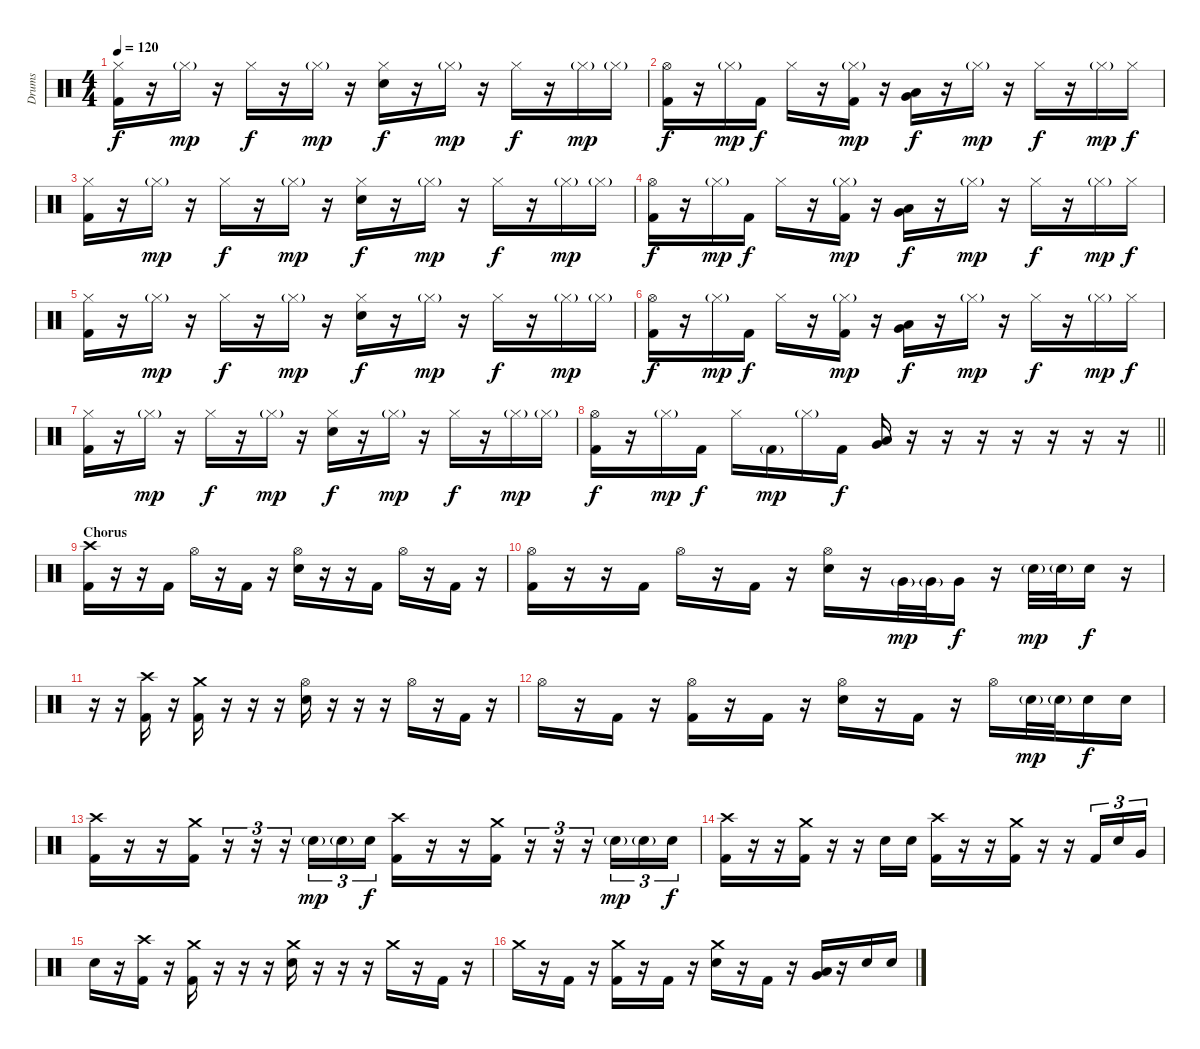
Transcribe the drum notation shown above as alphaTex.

\track ("Drums" "Drums") {instrument percussion}
\staff {score}
\articulation defaults
\ts (4 4)
\tempo 120
\clef neutral
\ks c
("Hi-Hat (closed)" "Kick (hit) 2").16{dy f} r.16 "Hi-Hat (closed)"{g}.16{dy mp} r.16 "Hi-Hat (closed)".16{dy f} r.16 "Hi-Hat (closed)"{g}.16{dy mp} r.16 ("Hi-Hat (closed)" "Electric Snare (hit)").16{dy f} r.16 "Hi-Hat (closed)"{g}.16{dy mp} r.16 "Hi-Hat (closed)".16{dy f} r.16 "Hi-Hat (closed)"{g}.16{dy mp} "Hi-Hat (closed)"{g}.16 |
("Hi-Hat (open)" "Kick (hit) 2").16{dy f} r.16 "Hi-Hat (closed)"{g}.16{dy mp} "Kick (hit) 2".16{dy f} "Hi-Hat (closed)".16 r.16 ("Hi-Hat (closed)"{g} "Kick (hit) 2").16{dy mp} r.16 ("Low Floor Tom (hit)" "Very Low Tom (hit)").16{dy f} r.16 "Hi-Hat (closed)"{g}.16{dy mp} r.16 "Hi-Hat (closed)".16{dy f} r.16 "Hi-Hat (closed)"{g}.16{dy mp} "Hi-Hat (closed)".16{dy f} |
("Hi-Hat (closed)" "Kick (hit) 2").16 r.16 "Hi-Hat (closed)"{g}.16{dy mp} r.16 "Hi-Hat (closed)".16{dy f} r.16 "Hi-Hat (closed)"{g}.16{dy mp} r.16 ("Hi-Hat (closed)" "Electric Snare (hit)").16{dy f} r.16 "Hi-Hat (closed)"{g}.16{dy mp} r.16 "Hi-Hat (closed)".16{dy f} r.16 "Hi-Hat (closed)"{g}.16{dy mp} "Hi-Hat (closed)"{g}.16 |
("Hi-Hat (open)" "Kick (hit) 2").16{dy f} r.16 "Hi-Hat (closed)"{g}.16{dy mp} "Kick (hit) 2".16{dy f} "Hi-Hat (closed)".16 r.16 ("Hi-Hat (closed)"{g} "Kick (hit) 2").16{dy mp} r.16 ("Low Floor Tom (hit)" "Very Low Tom (hit)").16{dy f} r.16 "Hi-Hat (closed)"{g}.16{dy mp} r.16 "Hi-Hat (closed)".16{dy f} r.16 "Hi-Hat (closed)"{g}.16{dy mp} "Hi-Hat (closed)".16{dy f} |
("Hi-Hat (closed)" "Kick (hit) 2").16 r.16 "Hi-Hat (closed)"{g}.16{dy mp} r.16 "Hi-Hat (closed)".16{dy f} r.16 "Hi-Hat (closed)"{g}.16{dy mp} r.16 ("Hi-Hat (closed)" "Electric Snare (hit)").16{dy f} r.16 "Hi-Hat (closed)"{g}.16{dy mp} r.16 "Hi-Hat (closed)".16{dy f} r.16 "Hi-Hat (closed)"{g}.16{dy mp} "Hi-Hat (closed)"{g}.16 |
("Hi-Hat (open)" "Kick (hit) 2").16{dy f} r.16 "Hi-Hat (closed)"{g}.16{dy mp} "Kick (hit) 2".16{dy f} "Hi-Hat (closed)".16 r.16 ("Hi-Hat (closed)"{g} "Kick (hit) 2").16{dy mp} r.16 ("Low Floor Tom (hit)" "Very Low Tom (hit)").16{dy f} r.16 "Hi-Hat (closed)"{g}.16{dy mp} r.16 "Hi-Hat (closed)".16{dy f} r.16 "Hi-Hat (closed)"{g}.16{dy mp} "Hi-Hat (closed)".16{dy f} |
("Hi-Hat (closed)" "Kick (hit) 2").16 r.16 "Hi-Hat (closed)"{g}.16{dy mp} r.16 "Hi-Hat (closed)".16{dy f} r.16 "Hi-Hat (closed)"{g}.16{dy mp} r.16 ("Hi-Hat (closed)" "Electric Snare (hit)").16{dy f} r.16 "Hi-Hat (closed)"{g}.16{dy mp} r.16 "Hi-Hat (closed)".16{dy f} r.16 "Hi-Hat (closed)"{g}.16{dy mp} "Hi-Hat (closed)"{g}.16 |
\barLineRight lightlight
("Hi-Hat (open)" "Kick (hit) 2").16{dy f} r.16 "Hi-Hat (closed)"{g}.16{dy mp} "Kick (hit) 2".16{dy f} "Hi-Hat (closed)".16 "Kick (hit) 2"{g}.16{dy mp} "Hi-Hat (closed)"{g}.16 "Kick (hit) 2".16{dy f} ("Low Floor Tom (hit)" "Very Low Tom (hit)").16 r.16 r.16 r.16 r.16 r.16 r.16 r.16 |
\section ("" "Chorus")
("Crash high (hit)" "Kick (hit) 2").16 r.16 r.16 "Kick (hit) 2".16 "Hi-Hat (open)".16 r.16 "Kick (hit) 2".16 r.16 ("Hi-Hat (open)" "Electric Snare (hit)").16 r.16 r.16 "Kick (hit) 2".16 "Hi-Hat (open)".16 r.16 "Kick (hit) 2".16 r.16 |
("Hi-Hat (open)" "Kick (hit) 2").16 r.16 r.16 "Kick (hit) 2".16 "Hi-Hat (open)".16 r.16 "Kick (hit) 2".16 r.16 ("Hi-Hat (open)" "Electric Snare (hit)").16 r.16 "Very Low Tom (hit)"{g}.32{dy mp} "Very Low Tom (hit)"{g}.32 "Very Low Tom (hit)".16{dy f} r.16 "Electric Snare (hit)"{g}.32{dy mp} "Electric Snare (hit)"{g}.32 "Electric Snare (hit)".16{dy f} r.16 |
r.16 r.16 ("Crash high (hit)" "Kick (hit) 2").16 r.16 ("Crash medium (hit)" "Kick (hit) 2").16 r.16 r.16 r.16 ("Hi-Hat (open)" "Electric Snare (hit)").16 r.16 r.16 r.16 "Hi-Hat (open)".16 r.16 "Kick (hit) 2".16 r.16 |
"Hi-Hat (open)".16 r.16 "Kick (hit) 2".16 r.16 ("Hi-Hat (open)" "Kick (hit) 2").16 r.16 "Kick (hit) 2".16 r.16 ("Hi-Hat (open)" "Electric Snare (hit)").16 r.16 "Kick (hit) 2".16 r.16 "Hi-Hat (open)".16 "Electric Snare (hit)"{g}.32{dy mp} "Electric Snare (hit)"{g}.32 "Electric Snare (hit)".16{dy f} "Electric Snare (hit)".16 |
("Crash high (hit)" "Kick (hit) 2").16 r.16 r.16 ("Crash medium (hit)" "Kick (hit) 2").16 r.16{tu (3 2)} r.16{tu (3 2)} r.16{tu (3 2)} "Electric Snare (hit)"{g}.16{tu (3 2) dy mp} "Electric Snare (hit)"{g}.16{tu (3 2)} "Electric Snare (hit)".16{tu (3 2) dy f} ("Crash high (hit)" "Kick (hit) 2").16 r.16 r.16 ("Crash medium (hit)" "Kick (hit) 2").16 r.16{tu (3 2)} r.16{tu (3 2)} r.16{tu (3 2)} "Electric Snare (hit)"{g}.16{tu (3 2) dy mp} "Electric Snare (hit)"{g}.16{tu (3 2)} "Electric Snare (hit)".16{tu (3 2) dy f} |
("Crash high (hit)" "Kick (hit) 2").16 r.16 r.16 ("Crash medium (hit)" "Kick (hit) 2").16 r.16 r.16 "Electric Snare (hit)".16 "Electric Snare (hit)".16 ("Crash high (hit)" "Kick (hit) 2").16 r.16 r.16 ("Crash medium (hit)" "Kick (hit) 2").16 r.16 r.16 "Kick (hit) 2".16{tu (3 2)} "Electric Snare (hit)".16{tu (3 2)} "Very Low Tom (hit)".16{tu (3 2)} |
"Electric Snare (hit)".16 r.16 ("Crash high (hit)" "Kick (hit) 2").16 r.16 ("Crash medium (hit)" "Kick (hit) 2").16 r.16 r.16 r.16 ("Crash medium (hit)" "Electric Snare (hit)").16 r.16 r.16 r.16 "Crash medium (hit)".16 r.16 "Kick (hit) 2".16 r.16 |
"Crash medium (hit)".16 r.16 "Kick (hit) 2".16 r.16 ("Crash medium (hit)" "Kick (hit) 2").16 r.16 "Kick (hit) 2".16 r.16 ("Crash medium (hit)" "Electric Snare (hit)").16 r.16 "Kick (hit) 2".16 r.16 ("Low Floor Tom (hit)" "Very Low Tom (hit)").16 r.16 "Electric Snare (hit)".16 "Electric Snare (hit)".16
